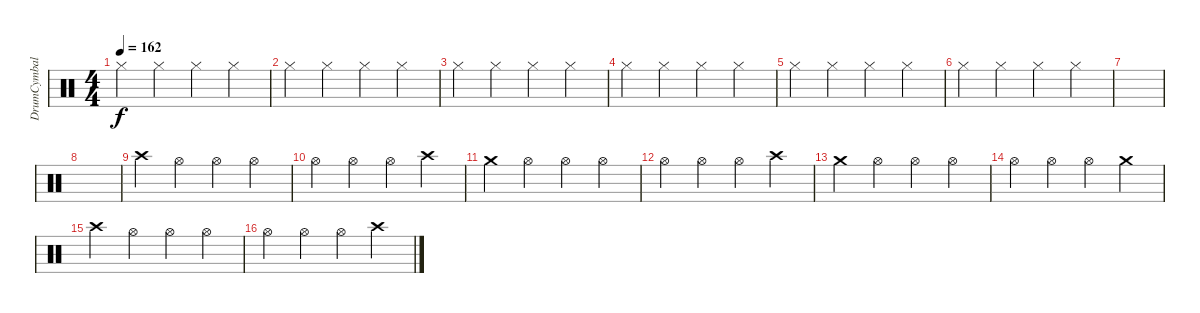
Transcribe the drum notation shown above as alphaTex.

\track ("DrumCymbal" "DrumCymbal") {instrument percussion}
\staff {score}
\articulation defaults
\ts (4 4)
\tempo 162
\clef neutral
\ks c "Hi-Hat (closed)".4{dy f} "Hi-Hat (closed)".4 "Hi-Hat (closed)".4 "Hi-Hat (closed)".4
|
"Hi-Hat (closed)".4 "Hi-Hat (closed)".4 "Hi-Hat (closed)".4 "Hi-Hat (closed)".4 |
"Hi-Hat (closed)".4 "Hi-Hat (closed)".4 "Hi-Hat (closed)".4 "Hi-Hat (closed)".4 |
"Hi-Hat (closed)".4 "Hi-Hat (closed)".4 "Hi-Hat (closed)".4 "Hi-Hat (closed)".4 |
"Hi-Hat (closed)".4 "Hi-Hat (closed)".4 "Hi-Hat (closed)".4 "Hi-Hat (closed)".4 |
"Hi-Hat (closed)".4 "Hi-Hat (closed)".4 "Hi-Hat (closed)".4 "Hi-Hat (closed)".4 |
|
|
"Crash high (hit)".4 "Hi-Hat (open)".4 "Hi-Hat (open)".4 "Hi-Hat (open)".4 |
"Hi-Hat (open)".4 "Hi-Hat (open)".4 "Hi-Hat (open)".4 "Crash high (hit)".4 |
"Crash medium (hit)".4 "Hi-Hat (open)".4 "Hi-Hat (open)".4 "Hi-Hat (open)".4 |
"Hi-Hat (open)".4 "Hi-Hat (open)".4 "Hi-Hat (open)".4 "Crash high (hit)".4 |
"Crash medium (hit)".4 "Hi-Hat (open)".4 "Hi-Hat (open)".4 "Hi-Hat (open)".4 |
"Hi-Hat (open)".4 "Hi-Hat (open)".4 "Hi-Hat (open)".4 "Crash medium (hit)".4 |
"Crash high (hit)".4 "Hi-Hat (open)".4 "Hi-Hat (open)".4 "Hi-Hat (open)".4 |
"Hi-Hat (open)".4 "Hi-Hat (open)".4 "Hi-Hat (open)".4 "Crash high (hit)".4
